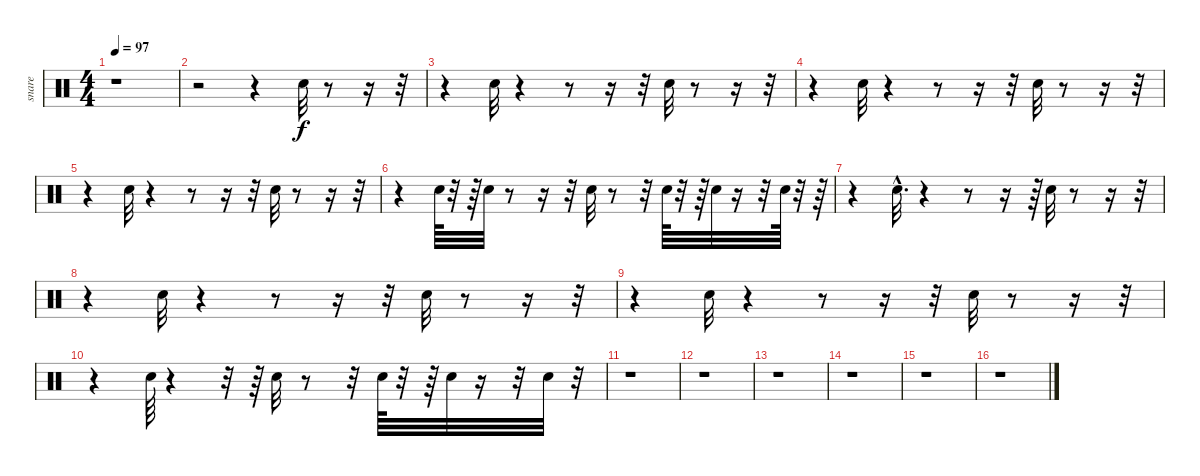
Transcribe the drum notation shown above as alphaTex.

\track ("snare" "snare") {instrument percussion}
\staff {score}
\articulation defaults
\ts (4 4)
\tempo 97
\clef neutral
\ks c
r.1{dy f} |
r.2 r.4 "Electric Snare (hit)".32 r.8 r.16 r.32 |
r.4 "Electric Snare (hit)".32 r.4 r.8 r.16 r.32 "Electric Snare (hit)".32 r.8 r.16 r.32 |
r.4 "Electric Snare (hit)".32 r.4 r.8 r.16 r.32 "Electric Snare (hit)".32 r.8 r.16 r.32 |
r.4 "Electric Snare (hit)".32 r.4 r.8 r.16 r.32 "Electric Snare (hit)".32 r.8 r.16 r.32 |
r.4 "Electric Snare (hit)".64 r.32 r.64 "Electric Snare (hit)".32 r.8 r.16 r.32 "Electric Snare (hit)".32 r.8 r.32 "Electric Snare (hit)".64 r.32 r.64 "Electric Snare (hit)".32 r.16 r.32 "Electric Snare (hit)".64 r.32 r.64 |
r.4 "Electric Snare (hit)"{hac}.32{d} r.4 r.8 r.16 r.64 "Electric Snare (hit)".32 r.8 r.16 r.32 |
r.4 "Electric Snare (hit)".32 r.4 r.8 r.16 r.32 "Electric Snare (hit)".32 r.8 r.16 r.32 |
r.4 "Electric Snare (hit)".32 r.4 r.8 r.16 r.32 "Electric Snare (hit)".32 r.8 r.16 r.32 |
r.4 "Electric Snare (hit)".64 r.4 r.32 r.64 "Electric Snare (hit)".32 r.8 r.32 "Electric Snare (hit)".64 r.32 r.64 "Electric Snare (hit)".32 r.16 r.32 "Electric Snare (hit)".32 r.32 |
r.1 |
r.1 |
r.1 |
r.1 |
r.1 |
r.1
